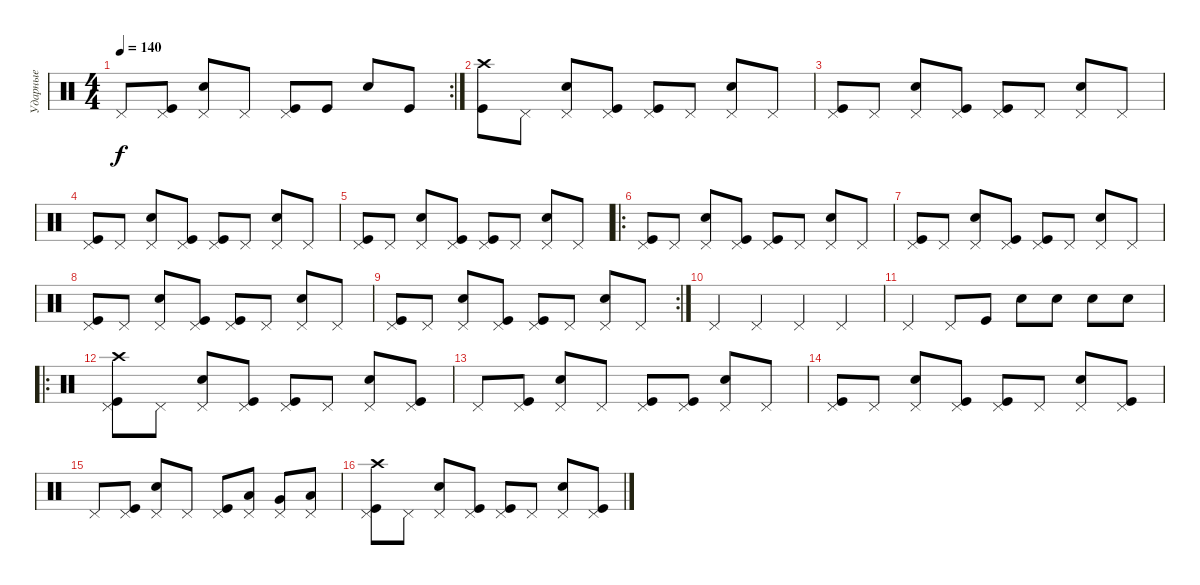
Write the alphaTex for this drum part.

\track ("Ударные" "Ударные") {instrument percussion}
\staff {score}
\articulation defaults
\rc 2
\ts (4 4)
\tempo 140
\clef neutral
\ks c "Pedal Hi-Hat (hit)".8{dy f}
("Pedal Hi-Hat (hit)" "Kick (hit)").8 ("Pedal Hi-Hat (hit)" "Snare (hit) 2").8 "Pedal Hi-Hat (hit)".8 ("Pedal Hi-Hat (hit)" "Kick (hit)").8 "Kick (hit)".8 "Snare (hit) 2".8 "Kick (hit)".8 |
("Crash high (hit)" "Kick (hit)").8 "Pedal Hi-Hat (hit)".8 ("Pedal Hi-Hat (hit)" "Snare (hit) 2").8 ("Pedal Hi-Hat (hit)" "Kick (hit)").8 ("Pedal Hi-Hat (hit)" "Kick (hit)").8 "Pedal Hi-Hat (hit)".8 ("Pedal Hi-Hat (hit)" "Snare (hit) 2").8 "Pedal Hi-Hat (hit)".8 |
("Pedal Hi-Hat (hit)" "Kick (hit)").8 "Pedal Hi-Hat (hit)".8 ("Pedal Hi-Hat (hit)" "Snare (hit) 2").8 ("Pedal Hi-Hat (hit)" "Kick (hit)").8 ("Pedal Hi-Hat (hit)" "Kick (hit)").8 "Pedal Hi-Hat (hit)".8 ("Pedal Hi-Hat (hit)" "Snare (hit) 2").8 "Pedal Hi-Hat (hit)".8 |
("Pedal Hi-Hat (hit)" "Kick (hit)").8 "Pedal Hi-Hat (hit)".8 ("Pedal Hi-Hat (hit)" "Snare (hit) 2").8 ("Pedal Hi-Hat (hit)" "Kick (hit)").8 ("Pedal Hi-Hat (hit)" "Kick (hit)").8 "Pedal Hi-Hat (hit)".8 ("Pedal Hi-Hat (hit)" "Snare (hit) 2").8 "Pedal Hi-Hat (hit)".8 |
("Pedal Hi-Hat (hit)" "Kick (hit)").8 "Pedal Hi-Hat (hit)".8 ("Pedal Hi-Hat (hit)" "Snare (hit) 2").8 ("Pedal Hi-Hat (hit)" "Kick (hit)").8 ("Pedal Hi-Hat (hit)" "Kick (hit)").8 "Pedal Hi-Hat (hit)".8 ("Pedal Hi-Hat (hit)" "Snare (hit) 2").8 "Pedal Hi-Hat (hit)".8 |
\ro
("Pedal Hi-Hat (hit)" "Kick (hit)").8 "Pedal Hi-Hat (hit)".8 ("Pedal Hi-Hat (hit)" "Snare (hit) 2").8 ("Pedal Hi-Hat (hit)" "Kick (hit)").8 ("Pedal Hi-Hat (hit)" "Kick (hit)").8 "Pedal Hi-Hat (hit)".8 ("Pedal Hi-Hat (hit)" "Snare (hit) 2").8 "Pedal Hi-Hat (hit)".8 |
("Pedal Hi-Hat (hit)" "Kick (hit)").8 "Pedal Hi-Hat (hit)".8 ("Pedal Hi-Hat (hit)" "Snare (hit) 2").8 ("Pedal Hi-Hat (hit)" "Kick (hit)").8 ("Pedal Hi-Hat (hit)" "Kick (hit)").8 "Pedal Hi-Hat (hit)".8 ("Pedal Hi-Hat (hit)" "Snare (hit) 2").8 "Pedal Hi-Hat (hit)".8 |
("Pedal Hi-Hat (hit)" "Kick (hit)").8 "Pedal Hi-Hat (hit)".8 ("Pedal Hi-Hat (hit)" "Snare (hit) 2").8 ("Pedal Hi-Hat (hit)" "Kick (hit)").8 ("Pedal Hi-Hat (hit)" "Kick (hit)").8 "Pedal Hi-Hat (hit)".8 ("Pedal Hi-Hat (hit)" "Snare (hit) 2").8 "Pedal Hi-Hat (hit)".8 |
\rc 2
("Pedal Hi-Hat (hit)" "Kick (hit)").8 "Pedal Hi-Hat (hit)".8 ("Pedal Hi-Hat (hit)" "Snare (hit) 2").8 ("Pedal Hi-Hat (hit)" "Kick (hit)").8 ("Pedal Hi-Hat (hit)" "Kick (hit)").8 "Pedal Hi-Hat (hit)".8 ("Pedal Hi-Hat (hit)" "Snare (hit) 2").8 "Pedal Hi-Hat (hit)".8 |
"Pedal Hi-Hat (hit)".4 "Pedal Hi-Hat (hit)".4 "Pedal Hi-Hat (hit)".4 "Pedal Hi-Hat (hit)".4 |
"Pedal Hi-Hat (hit)".4 "Pedal Hi-Hat (hit)".8 "Kick (hit)".8 "Snare (hit) 2".8 "Snare (hit) 2".8 "Snare (hit) 2".8 "Snare (hit) 2".8 |
\ro
("Pedal Hi-Hat (hit)" "Kick (hit)" "Crash high (hit)").8 "Pedal Hi-Hat (hit)".8 ("Pedal Hi-Hat (hit)" "Snare (hit) 2").8 ("Pedal Hi-Hat (hit)" "Kick (hit)").8 ("Pedal Hi-Hat (hit)" "Kick (hit)").8 "Pedal Hi-Hat (hit)".8 ("Pedal Hi-Hat (hit)" "Snare (hit) 2").8 ("Pedal Hi-Hat (hit)" "Kick (hit)").8 |
"Pedal Hi-Hat (hit)".8 ("Pedal Hi-Hat (hit)" "Kick (hit)").8 ("Pedal Hi-Hat (hit)" "Snare (hit) 2").8 "Pedal Hi-Hat (hit)".8 ("Pedal Hi-Hat (hit)" "Kick (hit)").8 ("Pedal Hi-Hat (hit)" "Kick (hit)").8 ("Pedal Hi-Hat (hit)" "Snare (hit) 2").8 "Pedal Hi-Hat (hit)".8 |
("Pedal Hi-Hat (hit)" "Kick (hit)").8 "Pedal Hi-Hat (hit)".8 ("Pedal Hi-Hat (hit)" "Snare (hit) 2").8 ("Pedal Hi-Hat (hit)" "Kick (hit)").8 ("Pedal Hi-Hat (hit)" "Kick (hit)").8 "Pedal Hi-Hat (hit)".8 ("Pedal Hi-Hat (hit)" "Snare (hit) 2").8 ("Pedal Hi-Hat (hit)" "Kick (hit)").8 |
"Pedal Hi-Hat (hit)".8 ("Pedal Hi-Hat (hit)" "Kick (hit)").8 ("Pedal Hi-Hat (hit)" "Snare (hit) 2").8 "Pedal Hi-Hat (hit)".8 ("Pedal Hi-Hat (hit)" "Kick (hit)").8 ("Pedal Hi-Hat (hit)" "Low Tom (hit)").8 ("Pedal Hi-Hat (hit)" "Very Low Tom (hit)").8 ("Pedal Hi-Hat (hit)" "Low Floor Tom (hit)").8 |
("Pedal Hi-Hat (hit)" "Kick (hit)" "Crash high (hit)").8 "Pedal Hi-Hat (hit)".8 ("Pedal Hi-Hat (hit)" "Snare (hit) 2").8 ("Pedal Hi-Hat (hit)" "Kick (hit)").8 ("Pedal Hi-Hat (hit)" "Kick (hit)").8 "Pedal Hi-Hat (hit)".8 ("Pedal Hi-Hat (hit)" "Snare (hit) 2").8 ("Pedal Hi-Hat (hit)" "Kick (hit)").8
